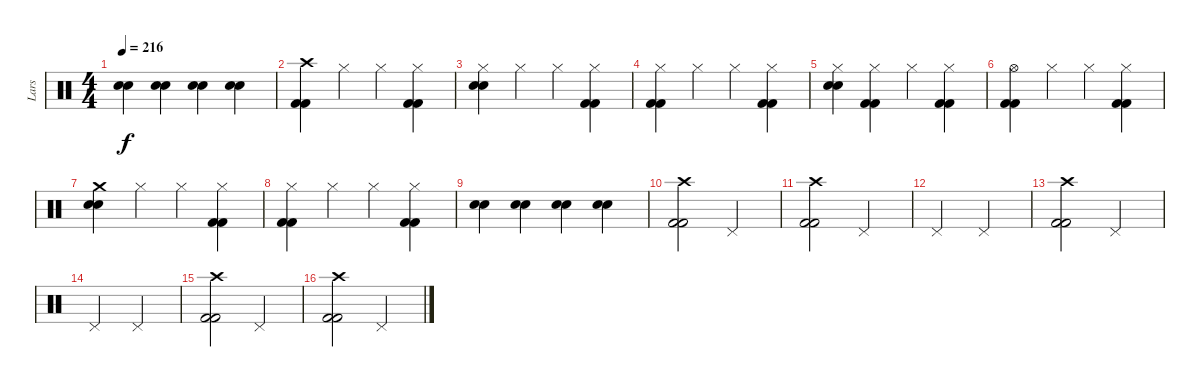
\track ("Lars" "Lars") {instrument percussion}
\staff {score}
\articulation defaults
\ts (4 4)
\tempo 216
\clef neutral
\ks c
("Electric Snare (hit)" "Electric Snare (hit)").4{dy f} ("Electric Snare (hit)" "Electric Snare (hit)").4 ("Electric Snare (hit)" "Electric Snare (hit)").4 ("Electric Snare (hit)" "Electric Snare (hit)").4 |
("Crash high (hit)" "Kick (hit) 2" "Kick (hit) 2").4 "Hi-Hat (closed)".4 "Hi-Hat (closed)".4 ("Hi-Hat (closed)" "Kick (hit) 2" "Kick (hit) 2").4 |
("Hi-Hat (closed)" "Electric Snare (hit)" "Electric Snare (hit)").4 "Hi-Hat (closed)".4 "Hi-Hat (closed)".4 ("Hi-Hat (closed)" "Kick (hit) 2" "Kick (hit) 2").4 |
("Hi-Hat (closed)" "Kick (hit) 2" "Kick (hit) 2").4 "Hi-Hat (closed)".4 "Hi-Hat (closed)".4 ("Hi-Hat (closed)" "Kick (hit) 2" "Kick (hit) 2").4 |
("Hi-Hat (closed)" "Electric Snare (hit)" "Electric Snare (hit)").4 ("Hi-Hat (closed)" "Kick (hit) 2" "Kick (hit) 2").4 "Hi-Hat (closed)".4 ("Hi-Hat (closed)" "Kick (hit) 2" "Kick (hit) 2").4 |
("Hi-Hat (open)" "Kick (hit) 2" "Kick (hit) 2").4 "Hi-Hat (closed)".4 "Hi-Hat (closed)".4 ("Hi-Hat (closed)" "Kick (hit) 2" "Kick (hit) 2").4 |
("Crash medium (hit)" "Electric Snare (hit)" "Electric Snare (hit)").4 "Hi-Hat (closed)".4 "Hi-Hat (closed)".4 ("Hi-Hat (closed)" "Kick (hit) 2" "Kick (hit) 2").4 |
("Hi-Hat (closed)" "Kick (hit) 2" "Kick (hit) 2").4 "Hi-Hat (closed)".4 "Hi-Hat (closed)".4 ("Hi-Hat (closed)" "Kick (hit) 2" "Kick (hit) 2").4 |
("Electric Snare (hit)" "Electric Snare (hit)").4 ("Electric Snare (hit)" "Electric Snare (hit)").4 ("Electric Snare (hit)" "Electric Snare (hit)").4 ("Electric Snare (hit)" "Electric Snare (hit)").4 |
("Crash high (hit)" "Kick (hit) 2" "Kick (hit) 2").2 "Pedal Hi-Hat (hit)".2 |
("Crash high (hit)" "Kick (hit) 2" "Kick (hit) 2").2 "Pedal Hi-Hat (hit)".2 |
"Pedal Hi-Hat (hit)".2 "Pedal Hi-Hat (hit)".2 |
("Crash high (hit)" "Kick (hit) 2" "Kick (hit) 2").2 "Pedal Hi-Hat (hit)".2 |
"Pedal Hi-Hat (hit)".2 "Pedal Hi-Hat (hit)".2 |
("Crash high (hit)" "Kick (hit) 2" "Kick (hit) 2").2 "Pedal Hi-Hat (hit)".2 |
("Crash high (hit)" "Kick (hit) 2" "Kick (hit) 2").2 "Pedal Hi-Hat (hit)".2
